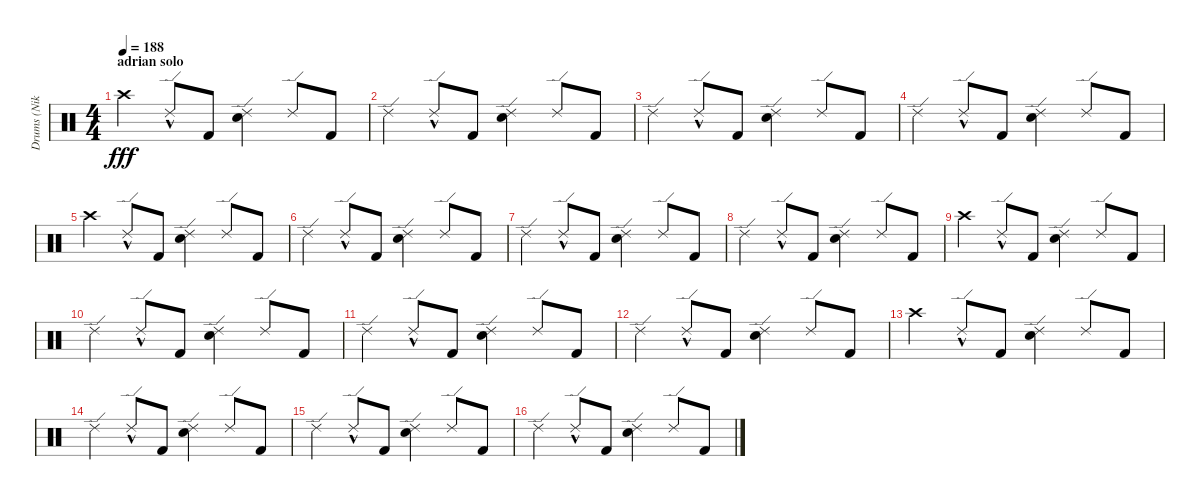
\track ("Drums (Niko)" "Drums (Nik") {instrument percussion}
\staff {score}
\articulation defaults
\ts (4 4)
\section ("" "adrian solo")
\tempo 188
\clef neutral
\ks c "Crash high (hit)".4{dy fff} "Ride (edge) 2"{hac}.8 "Kick (hit) 2".8
("Ride (edge) 2" "Electric Snare (hit)").4 "Ride (edge) 2".8 "Kick (hit) 2".8 |
"Ride (edge) 2".4 "Ride (edge) 2"{hac}.8 "Kick (hit) 2".8 ("Ride (edge) 2" "Electric Snare (hit)").4 "Ride (edge) 2".8 "Kick (hit) 2".8 |
"Ride (edge) 2".4 "Ride (edge) 2"{hac}.8 "Kick (hit) 2".8 ("Ride (edge) 2" "Electric Snare (hit)").4 "Ride (edge) 2".8 "Kick (hit) 2".8 |
"Ride (edge) 2".4 "Ride (edge) 2"{hac}.8 "Kick (hit) 2".8 ("Ride (edge) 2" "Electric Snare (hit)").4 "Ride (edge) 2".8 "Kick (hit) 2".8 |
"Crash high (hit)".4 "Ride (edge) 2"{hac}.8 "Kick (hit) 2".8 ("Ride (edge) 2" "Electric Snare (hit)").4 "Ride (edge) 2".8 "Kick (hit) 2".8 |
"Ride (edge) 2".4 "Ride (edge) 2"{hac}.8 "Kick (hit) 2".8 ("Ride (edge) 2" "Electric Snare (hit)").4 "Ride (edge) 2".8 "Kick (hit) 2".8 |
"Ride (edge) 2".4 "Ride (edge) 2"{hac}.8 "Kick (hit) 2".8 ("Ride (edge) 2" "Electric Snare (hit)").4 "Ride (edge) 2".8 "Kick (hit) 2".8 |
"Ride (edge) 2".4 "Ride (edge) 2"{hac}.8 "Kick (hit) 2".8 ("Ride (edge) 2" "Electric Snare (hit)").4 "Ride (edge) 2".8 "Kick (hit) 2".8 |
"Crash high (hit)".4 "Ride (edge) 2"{hac}.8 "Kick (hit) 2".8 ("Ride (edge) 2" "Electric Snare (hit)").4 "Ride (edge) 2".8 "Kick (hit) 2".8 |
"Ride (edge) 2".4 "Ride (edge) 2"{hac}.8 "Kick (hit) 2".8 ("Ride (edge) 2" "Electric Snare (hit)").4 "Ride (edge) 2".8 "Kick (hit) 2".8 |
"Ride (edge) 2".4 "Ride (edge) 2"{hac}.8 "Kick (hit) 2".8 ("Ride (edge) 2" "Electric Snare (hit)").4 "Ride (edge) 2".8 "Kick (hit) 2".8 |
"Ride (edge) 2".4 "Ride (edge) 2"{hac}.8 "Kick (hit) 2".8 ("Ride (edge) 2" "Electric Snare (hit)").4 "Ride (edge) 2".8 "Kick (hit) 2".8 |
"Crash high (hit)".4 "Ride (edge) 2"{hac}.8 "Kick (hit) 2".8 ("Ride (edge) 2" "Electric Snare (hit)").4 "Ride (edge) 2".8 "Kick (hit) 2".8 |
"Ride (edge) 2".4 "Ride (edge) 2"{hac}.8 "Kick (hit) 2".8 ("Ride (edge) 2" "Electric Snare (hit)").4 "Ride (edge) 2".8 "Kick (hit) 2".8 |
"Ride (edge) 2".4 "Ride (edge) 2"{hac}.8 "Kick (hit) 2".8 ("Ride (edge) 2" "Electric Snare (hit)").4 "Ride (edge) 2".8 "Kick (hit) 2".8 |
"Ride (edge) 2".4 "Ride (edge) 2"{hac}.8 "Kick (hit) 2".8 ("Ride (edge) 2" "Electric Snare (hit)").4 "Ride (edge) 2".8 "Kick (hit) 2".8
